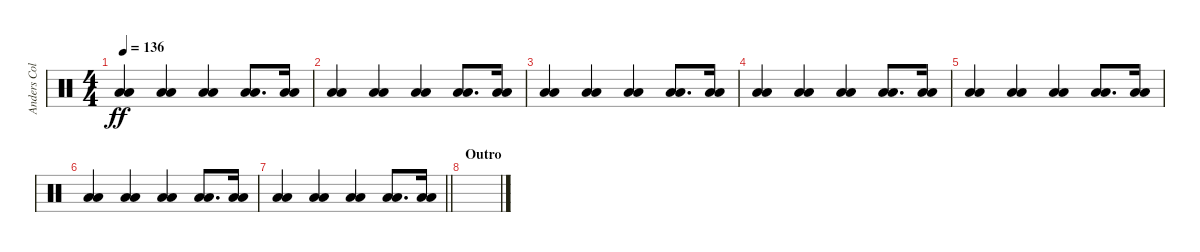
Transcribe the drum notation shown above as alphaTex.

\track ("Anders Colsefni" "Anders Col") {instrument percussion}
\staff {score}
\articulation defaults
\ts (4 4)
\tempo 136
\clef neutral
\ks c
("Low Floor Tom (hit)" "Low Floor Tom (hit)").4{dy ff} ("Low Floor Tom (hit)" "Low Floor Tom (hit)").4 ("Low Floor Tom (hit)" "Low Floor Tom (hit)").4 ("Low Floor Tom (hit)" "Low Floor Tom (hit)").8{d} ("Low Floor Tom (hit)" "Low Floor Tom (hit)").16 |
("Low Floor Tom (hit)" "Low Floor Tom (hit)").4 ("Low Floor Tom (hit)" "Low Floor Tom (hit)").4 ("Low Floor Tom (hit)" "Low Floor Tom (hit)").4 ("Low Floor Tom (hit)" "Low Floor Tom (hit)").8{d} ("Low Floor Tom (hit)" "Low Floor Tom (hit)").16 |
("Low Floor Tom (hit)" "Low Floor Tom (hit)").4 ("Low Floor Tom (hit)" "Low Floor Tom (hit)").4 ("Low Floor Tom (hit)" "Low Floor Tom (hit)").4 ("Low Floor Tom (hit)" "Low Floor Tom (hit)").8{d} ("Low Floor Tom (hit)" "Low Floor Tom (hit)").16 |
("Low Floor Tom (hit)" "Low Floor Tom (hit)").4 ("Low Floor Tom (hit)" "Low Floor Tom (hit)").4 ("Low Floor Tom (hit)" "Low Floor Tom (hit)").4 ("Low Floor Tom (hit)" "Low Floor Tom (hit)").8{d} ("Low Floor Tom (hit)" "Low Floor Tom (hit)").16 |
("Low Floor Tom (hit)" "Low Floor Tom (hit)").4 ("Low Floor Tom (hit)" "Low Floor Tom (hit)").4 ("Low Floor Tom (hit)" "Low Floor Tom (hit)").4 ("Low Floor Tom (hit)" "Low Floor Tom (hit)").8{d} ("Low Floor Tom (hit)" "Low Floor Tom (hit)").16 |
("Low Floor Tom (hit)" "Low Floor Tom (hit)").4 ("Low Floor Tom (hit)" "Low Floor Tom (hit)").4 ("Low Floor Tom (hit)" "Low Floor Tom (hit)").4 ("Low Floor Tom (hit)" "Low Floor Tom (hit)").8{d} ("Low Floor Tom (hit)" "Low Floor Tom (hit)").16 |
\barLineRight lightlight
("Low Floor Tom (hit)" "Low Floor Tom (hit)").4 ("Low Floor Tom (hit)" "Low Floor Tom (hit)").4 ("Low Floor Tom (hit)" "Low Floor Tom (hit)").4 ("Low Floor Tom (hit)" "Low Floor Tom (hit)").8{d} ("Low Floor Tom (hit)" "Low Floor Tom (hit)").16 |
\section ("" "Outro")
